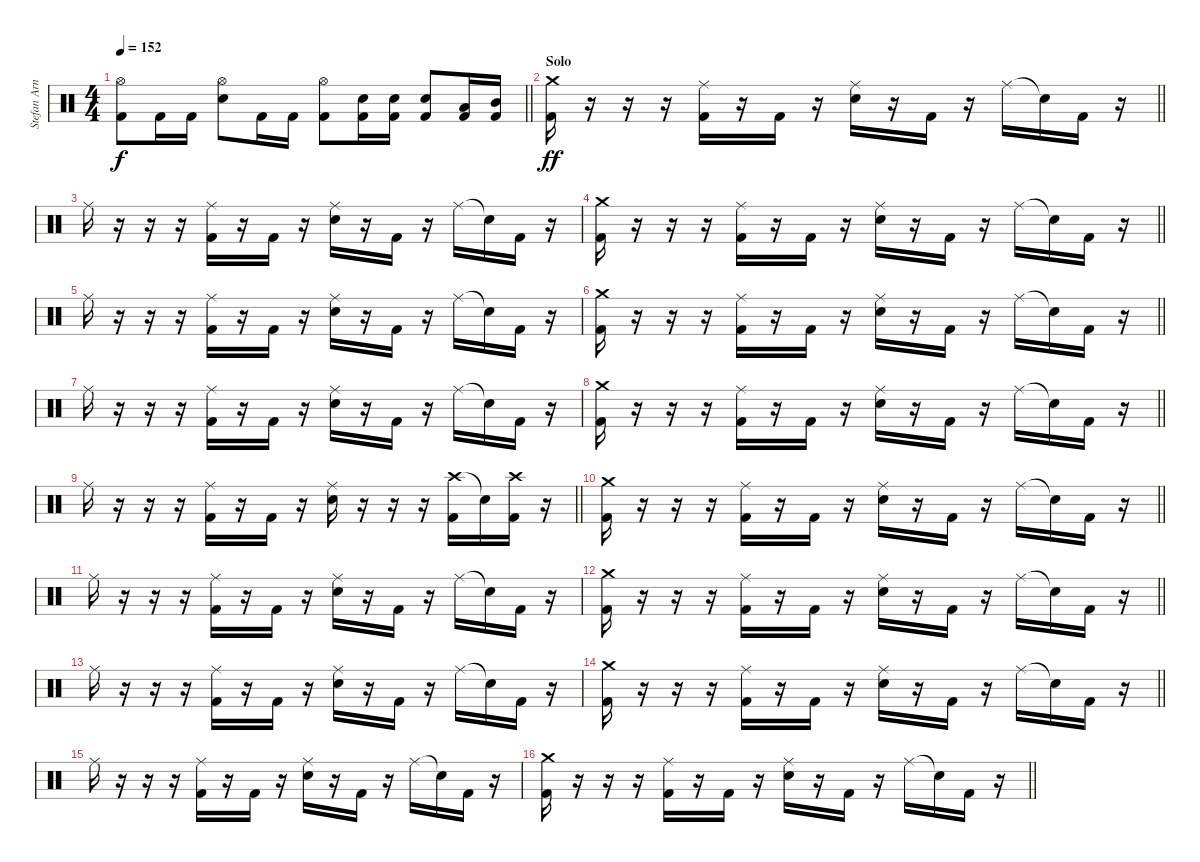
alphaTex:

\track ("Stefan Arnold" "Stefan Arn") {instrument percussion}
\staff {score}
\articulation defaults
\ts (4 4)
\tempo 152
\clef neutral
\barLineRight lightlight
\ks c
("Hi-Hat (open)" "Kick (hit) 2").8{dy f} "Kick (hit) 2".16 "Kick (hit) 2".16 ("Hi-Hat (open)" "Electric Snare (hit)").8 "Kick (hit) 2".16 "Kick (hit) 2".16 ("Hi-Hat (open)" "Kick (hit) 2").8 ("Electric Snare (hit)" "Kick (hit) 2").16 ("Electric Snare (hit)" "Kick (hit) 2").16 ("Electric Snare (hit)" "Kick (hit) 2").8 ("Low Tom (hit)" "Kick (hit) 2").16 ("Mid Tom (hit)" "Kick (hit) 2").16 |
\section ("" "Solo")
\barLineRight lightlight
("Crash medium (hit)" "Kick (hit) 2").16{dy ff} r.16 r.16 r.16 ("Ride (middle)" "Kick (hit) 2").16 r.16 "Kick (hit) 2".16 r.16 ("Ride (middle)" "Electric Snare (hit)").16 r.16 "Kick (hit) 2".16 r.16 "Ride (middle)".16 "Snare (hit)"{t}.16 "Kick (hit) 2".16 r.16 |
"Ride (middle)".16 r.16 r.16 r.16 ("Ride (middle)" "Kick (hit) 2").16 r.16 "Kick (hit) 2".16 r.16 ("Ride (middle)" "Electric Snare (hit)").16 r.16 "Kick (hit) 2".16 r.16 "Ride (middle)".16 "Snare (hit)"{t}.16 "Kick (hit) 2".16 r.16 |
\barLineRight lightlight
("Crash medium (hit)" "Kick (hit) 2").16 r.16 r.16 r.16 ("Ride (middle)" "Kick (hit) 2").16 r.16 "Kick (hit) 2".16 r.16 ("Ride (middle)" "Electric Snare (hit)").16 r.16 "Kick (hit) 2".16 r.16 "Ride (middle)".16 "Snare (hit)"{t}.16 "Kick (hit) 2".16 r.16 |
"Ride (middle)".16 r.16 r.16 r.16 ("Ride (middle)" "Kick (hit) 2").16 r.16 "Kick (hit) 2".16 r.16 ("Ride (middle)" "Electric Snare (hit)").16 r.16 "Kick (hit) 2".16 r.16 "Ride (middle)".16 "Snare (hit)"{t}.16 "Kick (hit) 2".16 r.16 |
\barLineRight lightlight
("Crash medium (hit)" "Kick (hit) 2").16 r.16 r.16 r.16 ("Ride (middle)" "Kick (hit) 2").16 r.16 "Kick (hit) 2".16 r.16 ("Ride (middle)" "Electric Snare (hit)").16 r.16 "Kick (hit) 2".16 r.16 "Ride (middle)".16 "Snare (hit)"{t}.16 "Kick (hit) 2".16 r.16 |
"Ride (middle)".16 r.16 r.16 r.16 ("Ride (middle)" "Kick (hit) 2").16 r.16 "Kick (hit) 2".16 r.16 ("Ride (middle)" "Electric Snare (hit)").16 r.16 "Kick (hit) 2".16 r.16 "Ride (middle)".16 "Snare (hit)"{t}.16 "Kick (hit) 2".16 r.16 |
\barLineRight lightlight
("Crash medium (hit)" "Kick (hit) 2").16 r.16 r.16 r.16 ("Ride (middle)" "Kick (hit) 2").16 r.16 "Kick (hit) 2".16 r.16 ("Ride (middle)" "Electric Snare (hit)").16 r.16 "Kick (hit) 2".16 r.16 "Ride (middle)".16 "Snare (hit)"{t}.16 "Kick (hit) 2".16 r.16 |
\barLineRight lightlight "Ride (middle)".16
r.16 r.16 r.16 ("Ride (middle)" "Kick (hit) 2").16 r.16 "Kick (hit) 2".16 r.16 ("Ride (middle)" "Electric Snare (hit)").16 r.16 r.16 r.16 ("Crash high (hit)" "Kick (hit) 2").16 "Snare (hit)"{t}.16 ("Crash high (hit)" "Kick (hit) 2").16 r.16 |
\barLineRight lightlight
("Crash medium (hit)" "Kick (hit) 2").16 r.16 r.16 r.16 ("Ride (middle)" "Kick (hit) 2").16 r.16 "Kick (hit) 2".16 r.16 ("Ride (middle)" "Electric Snare (hit)").16 r.16 "Kick (hit) 2".16 r.16 "Ride (middle)".16 "Snare (hit)"{t}.16 "Kick (hit) 2".16 r.16 |
"Ride (middle)".16 r.16 r.16 r.16 ("Ride (middle)" "Kick (hit) 2").16 r.16 "Kick (hit) 2".16 r.16 ("Ride (middle)" "Electric Snare (hit)").16 r.16 "Kick (hit) 2".16 r.16 "Ride (middle)".16 "Snare (hit)"{t}.16 "Kick (hit) 2".16 r.16 |
\barLineRight lightlight
("Crash medium (hit)" "Kick (hit) 2").16 r.16 r.16 r.16 ("Ride (middle)" "Kick (hit) 2").16 r.16 "Kick (hit) 2".16 r.16 ("Ride (middle)" "Electric Snare (hit)").16 r.16 "Kick (hit) 2".16 r.16 "Ride (middle)".16 "Snare (hit)"{t}.16 "Kick (hit) 2".16 r.16 |
"Ride (middle)".16 r.16 r.16 r.16 ("Ride (middle)" "Kick (hit) 2").16 r.16 "Kick (hit) 2".16 r.16 ("Ride (middle)" "Electric Snare (hit)").16 r.16 "Kick (hit) 2".16 r.16 "Ride (middle)".16 "Snare (hit)"{t}.16 "Kick (hit) 2".16 r.16 |
\barLineRight lightlight
("Crash medium (hit)" "Kick (hit) 2").16 r.16 r.16 r.16 ("Ride (middle)" "Kick (hit) 2").16 r.16 "Kick (hit) 2".16 r.16 ("Ride (middle)" "Electric Snare (hit)").16 r.16 "Kick (hit) 2".16 r.16 "Ride (middle)".16 "Snare (hit)"{t}.16 "Kick (hit) 2".16 r.16 |
"Ride (middle)".16 r.16 r.16 r.16 ("Ride (middle)" "Kick (hit) 2").16 r.16 "Kick (hit) 2".16 r.16 ("Ride (middle)" "Electric Snare (hit)").16 r.16 "Kick (hit) 2".16 r.16 "Ride (middle)".16 "Snare (hit)"{t}.16 "Kick (hit) 2".16 r.16 |
\barLineRight lightlight
("Crash medium (hit)" "Kick (hit) 2").16 r.16 r.16 r.16 ("Ride (middle)" "Kick (hit) 2").16 r.16 "Kick (hit) 2".16 r.16 ("Ride (middle)" "Electric Snare (hit)").16 r.16 "Kick (hit) 2".16 r.16 "Ride (middle)".16 "Snare (hit)"{t}.16 "Kick (hit) 2".16 r.16
